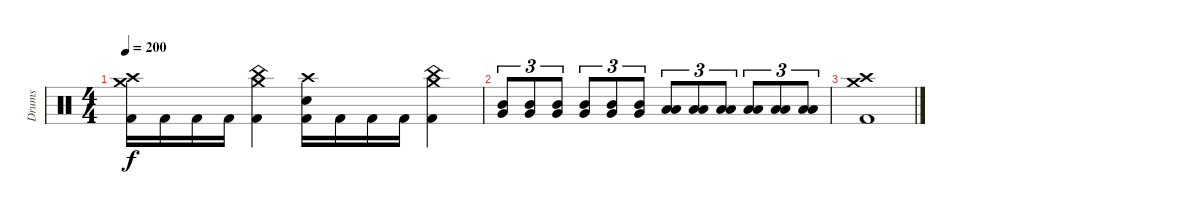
\track ("Drums" "Drums") {instrument percussion}
\staff {score}
\articulation defaults
\ts (4 4)
\tempo 200
\clef neutral
\ks c
("Crash medium (hit)" "Crash high (hit)" "Kick (hit) 2").16{dy f} "Kick (hit) 2".16 "Kick (hit) 2".16 "Kick (hit) 2".16 ("Crash medium (hit)" "China (hit)" "Kick (hit) 2").4 ("Crash high (hit)" "Snare (hit) 2" "Kick (hit) 2").16 "Kick (hit) 2".16 "Kick (hit) 2".16 "Kick (hit) 2".16 ("Crash medium (hit)" "China (hit)" "Kick (hit) 2").4 |
("Mid Tom (hit)" "Very Low Tom (hit)").8{tu (3 2)} ("Mid Tom (hit)" "Very Low Tom (hit)").8{tu (3 2)} ("Mid Tom (hit)" "Very Low Tom (hit)").8{tu (3 2)} ("Mid Tom (hit)" "Very Low Tom (hit)").8{tu (3 2)} ("Mid Tom (hit)" "Very Low Tom (hit)").8{tu (3 2)} ("Mid Tom (hit)" "Very Low Tom (hit)").8{tu (3 2)} ("Low Tom (hit)" "Low Floor Tom (hit)").8{tu (3 2)} ("Low Tom (hit)" "Low Floor Tom (hit)").8{tu (3 2)} ("Low Tom (hit)" "Low Floor Tom (hit)").8{tu (3 2)} ("Low Tom (hit)" "Low Floor Tom (hit)").8{tu (3 2)} ("Low Tom (hit)" "Low Floor Tom (hit)").8{tu (3 2)} ("Low Tom (hit)" "Low Floor Tom (hit)").8{tu (3 2)} |
("Crash high (hit)" "Crash medium (hit)" "Kick (hit) 2").1
